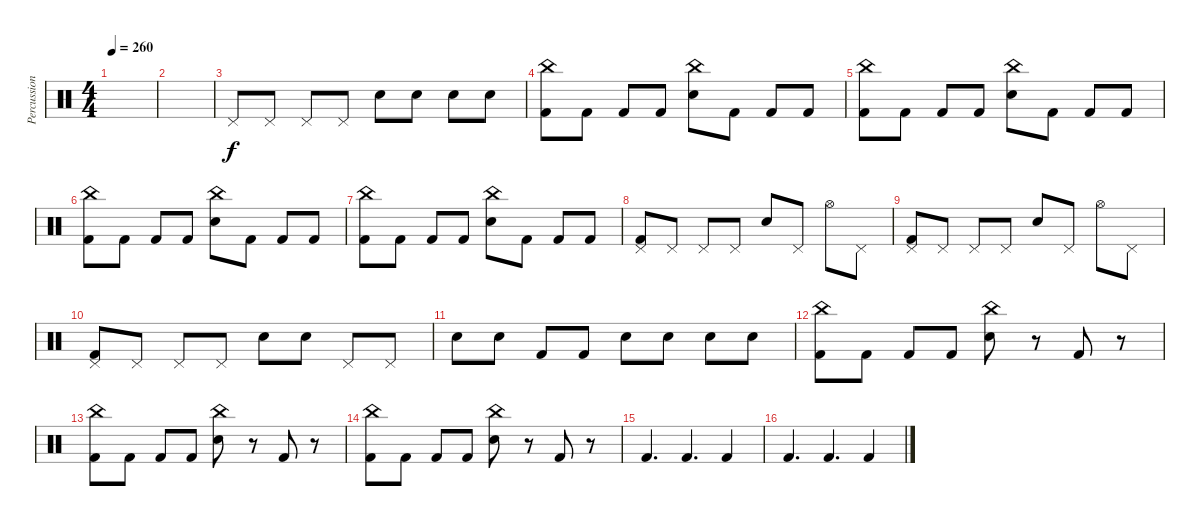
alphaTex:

\track ("Percussion" "Percussion") {instrument percussion}
\staff {score}
\articulation defaults
\ts (4 4)
\tempo 260
\clef neutral
\ks c
|
|
"Pedal Hi-Hat (hit)".8 "Pedal Hi-Hat (hit)".8 "Pedal Hi-Hat (hit)".8 "Pedal Hi-Hat (hit)".8 "Electric Snare (hit)".8 "Electric Snare (hit)".8 "Electric Snare (hit)".8 "Electric Snare (hit)".8 |
("China (hit)" "Kick (hit) 2").8 "Kick (hit) 2".8 "Kick (hit) 2".8 "Kick (hit) 2".8 ("China (hit)" "Electric Snare (hit)").8 "Kick (hit) 2".8 "Kick (hit) 2".8 "Kick (hit) 2".8 |
("China (hit)" "Kick (hit) 2").8 "Kick (hit) 2".8 "Kick (hit) 2".8 "Kick (hit) 2".8 ("China (hit)" "Electric Snare (hit)").8 "Kick (hit) 2".8 "Kick (hit) 2".8 "Kick (hit) 2".8 |
("China (hit)" "Kick (hit) 2").8 "Kick (hit) 2".8 "Kick (hit) 2".8 "Kick (hit) 2".8 ("China (hit)" "Electric Snare (hit)").8 "Kick (hit) 2".8 "Kick (hit) 2".8 "Kick (hit) 2".8 |
("China (hit)" "Kick (hit) 2").8 "Kick (hit) 2".8 "Kick (hit) 2".8 "Kick (hit) 2".8 ("China (hit)" "Electric Snare (hit)").8 "Kick (hit) 2".8 "Kick (hit) 2".8 "Kick (hit) 2".8 |
("Pedal Hi-Hat (hit)" "Kick (hit) 2").8 "Pedal Hi-Hat (hit)".8 "Pedal Hi-Hat (hit)".8 "Pedal Hi-Hat (hit)".8 "Electric Snare (hit)".8 "Pedal Hi-Hat (hit)".8 "Hi-Hat (open)".8 "Pedal Hi-Hat (hit)".8 |
("Pedal Hi-Hat (hit)" "Kick (hit) 2").8 "Pedal Hi-Hat (hit)".8 "Pedal Hi-Hat (hit)".8 "Pedal Hi-Hat (hit)".8 "Electric Snare (hit)".8 "Pedal Hi-Hat (hit)".8 "Hi-Hat (open)".8 "Pedal Hi-Hat (hit)".8 |
("Pedal Hi-Hat (hit)" "Kick (hit) 2").8 "Pedal Hi-Hat (hit)".8 "Pedal Hi-Hat (hit)".8 "Pedal Hi-Hat (hit)".8 "Electric Snare (hit)".8 "Electric Snare (hit)".8 "Pedal Hi-Hat (hit)".8 "Pedal Hi-Hat (hit)".8 |
"Electric Snare (hit)".8 "Electric Snare (hit)".8 "Kick (hit) 2".8 "Kick (hit) 2".8 "Electric Snare (hit)".8 "Electric Snare (hit)".8 "Electric Snare (hit)".8 "Electric Snare (hit)".8 |
("China (hit)" "Kick (hit) 2").8 "Kick (hit) 2".8 "Kick (hit) 2".8 "Kick (hit) 2".8 ("China (hit)" "Electric Snare (hit)").8 r.8 "Kick (hit) 2".8 r.8 |
("China (hit)" "Kick (hit) 2").8 "Kick (hit) 2".8 "Kick (hit) 2".8 "Kick (hit) 2".8 ("China (hit)" "Electric Snare (hit)").8 r.8 "Kick (hit) 2".8 r.8 |
("China (hit)" "Kick (hit) 2").8 "Kick (hit) 2".8 "Kick (hit) 2".8 "Kick (hit) 2".8 ("China (hit)" "Electric Snare (hit)").8 r.8 "Kick (hit) 2".8 r.8 |
"Kick (hit) 2".4{d} "Kick (hit) 2".4{d} "Kick (hit) 2".4 |
"Kick (hit) 2".4{d} "Kick (hit) 2".4{d} "Kick (hit) 2".4
